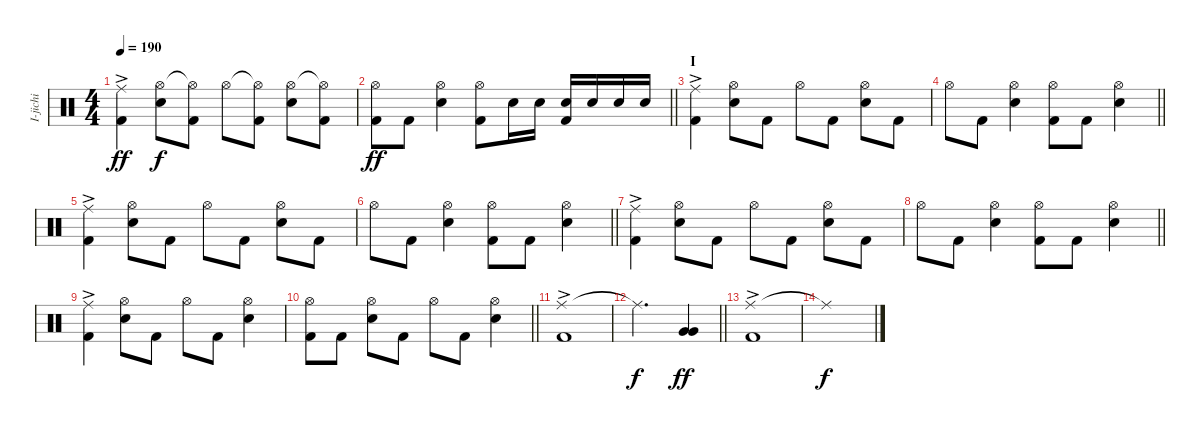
\track ("I-jichi" "I-jichi") {instrument percussion}
\staff {score}
\articulation defaults
\ts (4 4)
\tempo 190
\clef neutral
\ks c
("Ride (middle)"{ac} "Kick (hit) 2").4{dy ff} ("Hi-Hat (open)" "Snare (hit) 2").8{dy f} ("Hi-Hat (open)"{t} "Kick (hit) 2").8 "Hi-Hat (open)".8 ("Hi-Hat (open)"{t} "Kick (hit) 2").8 ("Hi-Hat (open)" "Snare (hit) 2").8 ("Hi-Hat (open)"{t} "Kick (hit) 2").8 |
\barLineRight lightlight
("Hi-Hat (open)" "Kick (hit) 2").8{dy ff} "Kick (hit) 2".8 ("Hi-Hat (open)" "Snare (hit) 2").4 ("Hi-Hat (open)" "Kick (hit) 2").8 "Snare (hit) 2".16 "Snare (hit) 2".16 ("Snare (hit) 2" "Kick (hit) 2").16 "Snare (hit) 2".16 "Snare (hit) 2".16 "Snare (hit) 2".16 |
\section ("" "I")
("Ride (middle)"{ac} "Kick (hit) 2").4 ("Hi-Hat (open)" "Snare (hit) 2").8 "Kick (hit) 2".8 "Hi-Hat (open)".8 "Kick (hit) 2".8 ("Hi-Hat (open)" "Snare (hit) 2").8 "Kick (hit) 2".8 |
\barLineRight lightlight "Hi-Hat (open)".8 "Kick (hit) 2".8
("Hi-Hat (open)" "Snare (hit) 2").4 ("Hi-Hat (open)" "Kick (hit) 2").8 "Kick (hit) 2".8 ("Hi-Hat (open)" "Snare (hit) 2").4 |
("Ride (middle)"{ac} "Kick (hit) 2").4 ("Hi-Hat (open)" "Snare (hit) 2").8 "Kick (hit) 2".8 "Hi-Hat (open)".8 "Kick (hit) 2".8 ("Hi-Hat (open)" "Snare (hit) 2").8 "Kick (hit) 2".8 |
\barLineRight lightlight "Hi-Hat (open)".8 "Kick (hit) 2".8
("Hi-Hat (open)" "Snare (hit) 2").4 ("Hi-Hat (open)" "Kick (hit) 2").8 "Kick (hit) 2".8 ("Hi-Hat (open)" "Snare (hit) 2").4 |
("Ride (middle)"{ac} "Kick (hit) 2").4 ("Hi-Hat (open)" "Snare (hit) 2").8 "Kick (hit) 2".8 "Hi-Hat (open)".8 "Kick (hit) 2".8 ("Hi-Hat (open)" "Snare (hit) 2").8 "Kick (hit) 2".8 |
\barLineRight lightlight "Hi-Hat (open)".8 "Kick (hit) 2".8
("Hi-Hat (open)" "Snare (hit) 2").4 ("Hi-Hat (open)" "Kick (hit) 2").8 "Kick (hit) 2".8 ("Hi-Hat (open)" "Snare (hit) 2").4 |
("Ride (middle)"{ac} "Kick (hit) 2").4 ("Hi-Hat (open)" "Snare (hit) 2").8 "Kick (hit) 2".8 "Hi-Hat (open)".8 "Kick (hit) 2".8 ("Hi-Hat (open)" "Snare (hit) 2").4 |
\barLineRight lightlight
("Hi-Hat (open)" "Kick (hit) 2").8 "Kick (hit) 2".8 ("Hi-Hat (open)" "Snare (hit) 2").8 "Kick (hit) 2".8 "Hi-Hat (open)".8 "Kick (hit) 2".8 ("Hi-Hat (open)" "Snare (hit) 2").4 |
("Ride (middle)"{ac} "Kick (hit) 2").1 |
\barLineRight lightlight "Ride (middle)"{t}.2{d dy f}
("Very Low Tom (hit)" "Very Low Tom (hit)").4{dy ff} |
("Ride (middle)"{ac} "Kick (hit) 2").1 |
"Ride (middle)"{t}.1{dy f}
